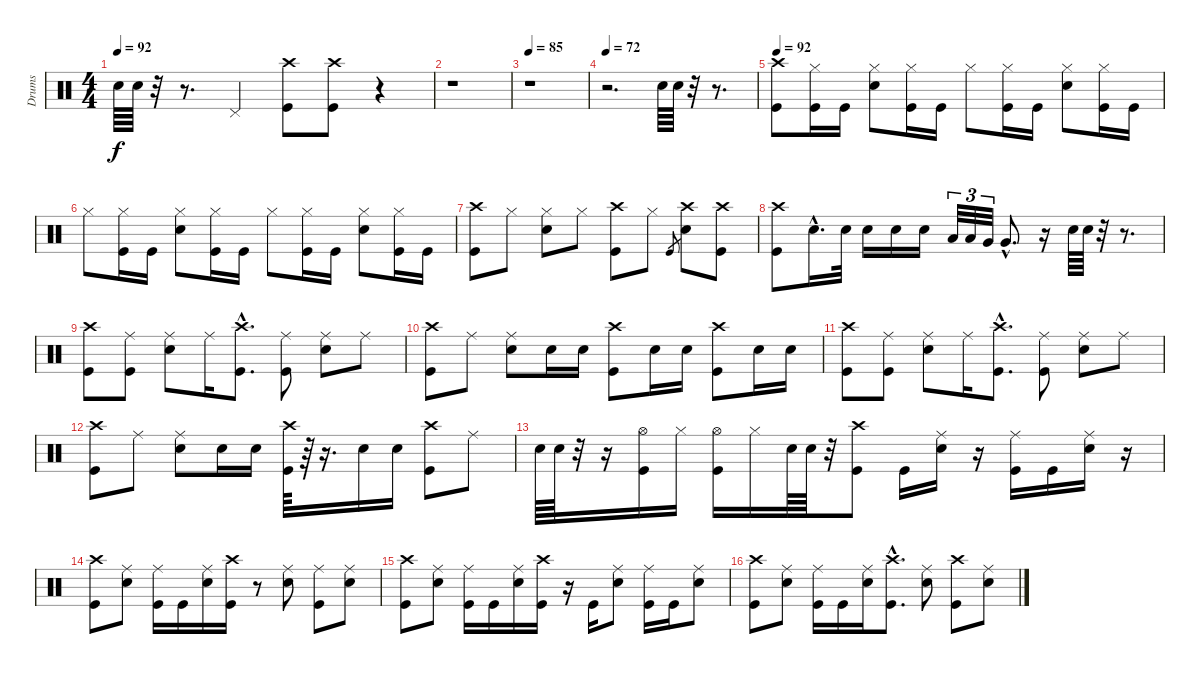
\track ("Drums" "Drums") {instrument percussion}
\staff {score}
\articulation defaults
\ts (4 4)
\tempo 92
\clef neutral
\ks c "Snare (hit) 2".64{dy f} "Snare (hit) 2".64
r.32 r.8{d} "Pedal Hi-Hat (hit)".4 ("Crash high (hit)" "Kick (hit)").8 ("Crash high (hit)" "Kick (hit)").8 r.4 |
r.1 |
\tempo 85
r.1 |
\tempo 72
r.2{d} "Snare (hit) 2".64 "Snare (hit) 2".64 r.32 r.8{d} |
\tempo 92
("Crash high (hit)" "Kick (hit)").8 ("Hi-Hat (closed)" "Kick (hit)").16 "Kick (hit)".16 ("Hi-Hat (closed)" "Snare (hit) 2").8 ("Hi-Hat (closed)" "Kick (hit)").16 "Kick (hit)".16 "Hi-Hat (closed)".8 ("Hi-Hat (closed)" "Kick (hit)").16 "Kick (hit)".16 ("Hi-Hat (closed)" "Snare (hit) 2").8 ("Hi-Hat (closed)" "Kick (hit)").16 "Kick (hit)".16 |
"Hi-Hat (closed)".8 ("Hi-Hat (closed)" "Kick (hit)").16 "Kick (hit)".16 ("Hi-Hat (closed)" "Snare (hit) 2").8 ("Hi-Hat (closed)" "Kick (hit)").16 "Kick (hit)".16 "Hi-Hat (closed)".8 ("Hi-Hat (closed)" "Kick (hit)").16 "Kick (hit)".16 ("Hi-Hat (closed)" "Snare (hit) 2").8 ("Hi-Hat (closed)" "Kick (hit)").16 "Kick (hit)".16 |
("Crash high (hit)" "Kick (hit)").8 "Hi-Hat (closed)".8 ("Hi-Hat (closed)" "Snare (hit) 2").8 "Hi-Hat (closed)".8 ("Crash high (hit)" "Kick (hit)").8 "Hi-Hat (closed)".8 "Kick (hit)".8{gr} ("Crash high (hit)" "Snare (hit) 2").8 ("Crash high (hit)" "Kick (hit)").8 |
("Crash high (hit)" "Kick (hit)").8 "Snare (hit) 2"{hac}.16{d} "Snare (hit) 2".32 "Snare (hit) 2".16 "Snare (hit) 2".16 "Snare (hit) 2".16 "Low Tom (hit)".32{tu (3 2)} "Low Tom (hit)".32{tu (3 2)} "Very Low Tom (hit)".32{tu (3 2)} "Very Low Tom (hit)"{hac}.8{d} r.16 "Snare (hit) 2".64 "Snare (hit) 2".64 r.32 r.8{d} |
("Crash high (hit)" "Kick (hit)").8 ("Ride (middle)" "Kick (hit)").8 ("Ride (middle)" "Snare (hit) 2").8 "Ride (middle)".16 ("Crash high (hit)"{hac} "Kick (hit)"{hac}).8{d} ("Ride (middle)" "Kick (hit)").8 ("Ride (middle)" "Snare (hit) 2").8 "Ride (middle)".8 |
("Crash high (hit)" "Kick (hit)").8 "Ride (middle)".8 ("Ride (middle)" "Snare (hit) 2").8 "Snare (hit) 2".16 "Snare (hit) 2".16 ("Crash high (hit)" "Kick (hit)").8 "Snare (hit) 2".16 "Snare (hit) 2".16 ("Crash high (hit)" "Kick (hit)").8 "Snare (hit) 2".16 "Snare (hit) 2".16 |
("Crash high (hit)" "Kick (hit)").8 ("Ride (middle)" "Kick (hit)").8 ("Ride (middle)" "Snare (hit) 2").8 "Ride (middle)".16 ("Crash high (hit)"{hac} "Kick (hit)"{hac}).8{d} ("Ride (middle)" "Kick (hit)").8 ("Ride (middle)" "Snare (hit) 2").8 "Ride (middle)".8 |
("Crash high (hit)" "Kick (hit)").8 "Ride (middle)".8 ("Ride (middle)" "Snare (hit) 2").8 "Snare (hit) 2".16 "Snare (hit) 2".16 ("Crash high (hit)" "Kick (hit)").64 r.64 r.16{d} "Snare (hit) 2".16 "Snare (hit) 2".16 ("Crash high (hit)" "Kick (hit)").8 "Ride (middle)".8 |
"Snare (hit) 2".64 "Snare (hit) 2".64 r.32 r.16 ("Hi-Hat (open)" "Kick (hit)").16 "Hi-Hat (closed)".16 ("Hi-Hat (open)" "Kick (hit)").16 "Hi-Hat (closed)".16 "Snare (hit) 2".64 "Snare (hit) 2".64 r.32 ("Crash high (hit)" "Kick (hit)").8 "Kick (hit)".16 ("Ride (middle)" "Snare (hit) 2").16 r.16 ("Ride (middle)" "Kick (hit)").16 "Kick (hit)".16 ("Ride (middle)" "Snare (hit) 2").16 r.16 |
("Crash high (hit)" "Kick (hit)").8 ("Ride (middle)" "Snare (hit) 2").8 ("Ride (middle)" "Kick (hit)").16 "Kick (hit)".16 ("Ride (middle)" "Snare (hit) 2").16 ("Crash high (hit)" "Kick (hit)").16 r.8 ("Ride (middle)" "Snare (hit) 2").8 ("Ride (middle)" "Kick (hit)").8 ("Ride (middle)" "Snare (hit) 2").8 |
("Crash high (hit)" "Kick (hit)").8 ("Ride (middle)" "Snare (hit) 2").8 ("Ride (middle)" "Kick (hit)").16 "Kick (hit)".16 ("Ride (middle)" "Snare (hit) 2").16 ("Crash high (hit)" "Kick (hit)").16 r.16 "Kick (hit)".16 ("Ride (middle)" "Snare (hit) 2").8 ("Ride (middle)" "Kick (hit)").16 "Kick (hit)".16 ("Ride (middle)" "Snare (hit) 2").8 |
("Crash high (hit)" "Kick (hit)").8 ("Ride (middle)" "Snare (hit) 2").8 ("Ride (middle)" "Kick (hit)").16 "Kick (hit)".16 ("Ride (middle)" "Snare (hit) 2").16 ("Crash high (hit)"{hac} "Kick (hit)"{hac}).8{d} ("Ride (middle)" "Snare (hit) 2").8 ("Crash high (hit)" "Kick (hit)").8 ("Ride (middle)" "Snare (hit) 2").8
